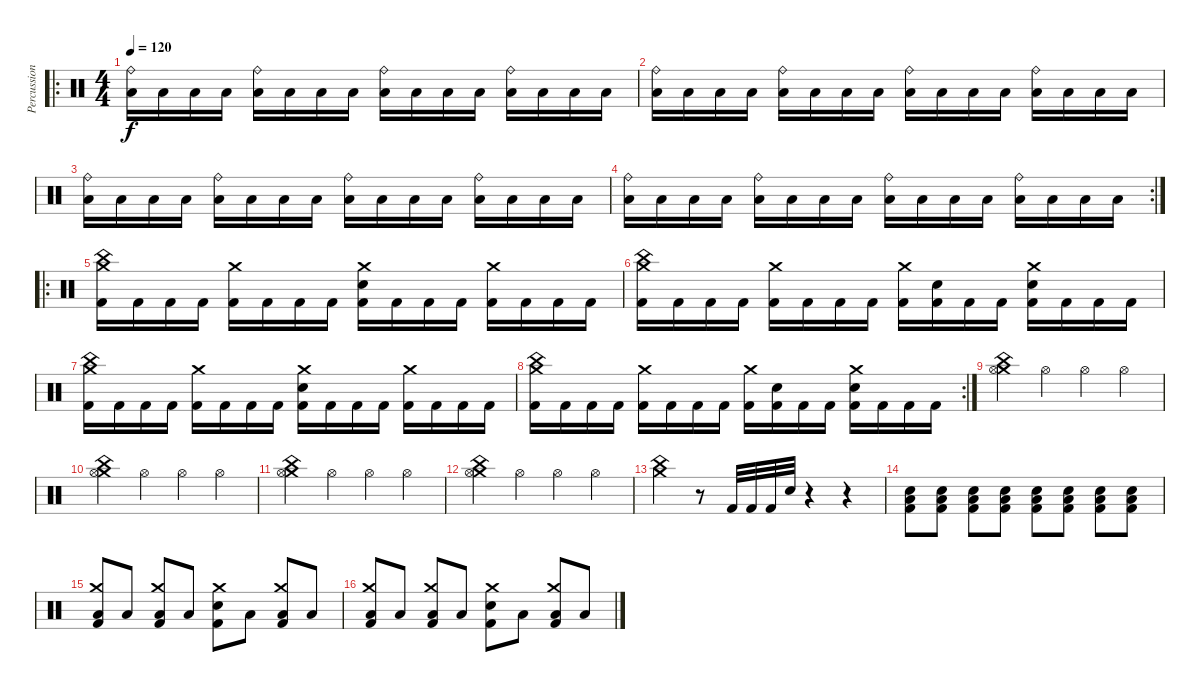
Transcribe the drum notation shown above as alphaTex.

\track ("Percussion" "Percussion") {instrument percussion}
\staff {score}
\articulation defaults
\ro
\ts (4 4)
\tempo 120
\clef neutral
\ks c
("Ride (bell)" "Low Tom (hit)").16{dy f} "Low Tom (hit)".16 "Low Tom (hit)".16 "Low Tom (hit)".16 ("Ride (bell)" "Low Tom (hit)").16 "Low Tom (hit)".16 "Low Tom (hit)".16 "Low Tom (hit)".16 ("Ride (bell)" "Low Tom (hit)").16 "Low Tom (hit)".16 "Low Tom (hit)".16 "Low Tom (hit)".16 ("Ride (bell)" "Low Tom (hit)").16 "Low Tom (hit)".16 "Low Tom (hit)".16 "Low Tom (hit)".16 |
("Ride (bell)" "Low Tom (hit)").16 "Low Tom (hit)".16 "Low Tom (hit)".16 "Low Tom (hit)".16 ("Ride (bell)" "Low Tom (hit)").16 "Low Tom (hit)".16 "Low Tom (hit)".16 "Low Tom (hit)".16 ("Ride (bell)" "Low Tom (hit)").16 "Low Tom (hit)".16 "Low Tom (hit)".16 "Low Tom (hit)".16 ("Ride (bell)" "Low Tom (hit)").16 "Low Tom (hit)".16 "Low Tom (hit)".16 "Low Tom (hit)".16 |
("Ride (bell)" "Low Tom (hit)").16 "Low Tom (hit)".16 "Low Tom (hit)".16 "Low Tom (hit)".16 ("Ride (bell)" "Low Tom (hit)").16 "Low Tom (hit)".16 "Low Tom (hit)".16 "Low Tom (hit)".16 ("Ride (bell)" "Low Tom (hit)").16 "Low Tom (hit)".16 "Low Tom (hit)".16 "Low Tom (hit)".16 ("Ride (bell)" "Low Tom (hit)").16 "Low Tom (hit)".16 "Low Tom (hit)".16 "Low Tom (hit)".16 |
\rc 2
("Ride (bell)" "Low Tom (hit)").16 "Low Tom (hit)".16 "Low Tom (hit)".16 "Low Tom (hit)".16 ("Ride (bell)" "Low Tom (hit)").16 "Low Tom (hit)".16 "Low Tom (hit)".16 "Low Tom (hit)".16 ("Ride (bell)" "Low Tom (hit)").16 "Low Tom (hit)".16 "Low Tom (hit)".16 "Low Tom (hit)".16 ("Ride (bell)" "Low Tom (hit)").16 "Low Tom (hit)".16 "Low Tom (hit)".16 "Low Tom (hit)".16 |
\ro
("Crash medium (hit)" "Kick (hit) 2" "China (hit)").16 "Kick (hit) 2".16 "Kick (hit) 2".16 "Kick (hit) 2".16 ("Crash medium (hit)" "Kick (hit) 2").16 "Kick (hit) 2".16 "Kick (hit) 2".16 "Kick (hit) 2".16 ("Crash medium (hit)" "Kick (hit) 2" "Snare (hit) 2").16 "Kick (hit) 2".16 "Kick (hit) 2".16 "Kick (hit) 2".16 ("Crash medium (hit)" "Kick (hit) 2").16 "Kick (hit) 2".16 "Kick (hit) 2".16 "Kick (hit) 2".16 |
("Crash medium (hit)" "Kick (hit) 2" "China (hit)").16 "Kick (hit) 2".16 "Kick (hit) 2".16 "Kick (hit) 2".16 ("Crash medium (hit)" "Kick (hit) 2").16 "Kick (hit) 2".16 "Kick (hit) 2".16 "Kick (hit) 2".16 ("Crash medium (hit)" "Kick (hit) 2").16 ("Kick (hit) 2" "Snare (hit) 2").16 "Kick (hit) 2".16 "Kick (hit) 2".16 ("Crash medium (hit)" "Kick (hit) 2" "Snare (hit) 2").16 "Kick (hit) 2".16 "Kick (hit) 2".16 "Kick (hit) 2".16 |
("Crash medium (hit)" "Kick (hit) 2" "China (hit)").16 "Kick (hit) 2".16 "Kick (hit) 2".16 "Kick (hit) 2".16 ("Crash medium (hit)" "Kick (hit) 2").16 "Kick (hit) 2".16 "Kick (hit) 2".16 "Kick (hit) 2".16 ("Crash medium (hit)" "Kick (hit) 2" "Snare (hit) 2").16 "Kick (hit) 2".16 "Kick (hit) 2".16 "Kick (hit) 2".16 ("Crash medium (hit)" "Kick (hit) 2").16 "Kick (hit) 2".16 "Kick (hit) 2".16 "Kick (hit) 2".16 |
\rc 2
("Crash medium (hit)" "Kick (hit) 2" "China (hit)").16 "Kick (hit) 2".16 "Kick (hit) 2".16 "Kick (hit) 2".16 ("Crash medium (hit)" "Kick (hit) 2").16 "Kick (hit) 2".16 "Kick (hit) 2".16 "Kick (hit) 2".16 ("Crash medium (hit)" "Kick (hit) 2").16 ("Kick (hit) 2" "Snare (hit) 2").16 "Kick (hit) 2".16 "Kick (hit) 2".16 ("Crash medium (hit)" "Kick (hit) 2" "Snare (hit) 2").16 "Kick (hit) 2".16 "Kick (hit) 2".16 "Kick (hit) 2".16 |
("Crash medium (hit)" "Hi-Hat (open)" "China (hit)").4 "Hi-Hat (open)".4 "Hi-Hat (open)".4 "Hi-Hat (open)".4 |
("Crash medium (hit)" "Hi-Hat (open)" "China (hit)").4 "Hi-Hat (open)".4 "Hi-Hat (open)".4 "Hi-Hat (open)".4 |
("Crash medium (hit)" "Hi-Hat (open)" "China (hit)").4 "Hi-Hat (open)".4 "Hi-Hat (open)".4 "Hi-Hat (open)".4 |
("Crash medium (hit)" "Hi-Hat (open)" "China (hit)").4 "Hi-Hat (open)".4 "Hi-Hat (open)".4 "Hi-Hat (open)".4 |
("Crash medium (hit)" "China (hit)").4 r.8 "Kick (hit) 2".32 "Kick (hit) 2".32 "Kick (hit) 2".32 "Snare (hit) 2".32 r.4 r.4 |
("Kick (hit) 2" "Low Tom (hit)" "Snare (hit) 2").8 ("Kick (hit) 2" "Low Tom (hit)" "Snare (hit) 2").8 ("Kick (hit) 2" "Low Tom (hit)" "Snare (hit) 2").8 ("Kick (hit) 2" "Low Tom (hit)" "Snare (hit) 2").8 ("Kick (hit) 2" "Low Tom (hit)" "Snare (hit) 2").8 ("Kick (hit) 2" "Low Tom (hit)" "Snare (hit) 2").8 ("Kick (hit) 2" "Low Tom (hit)" "Snare (hit) 2").8 ("Kick (hit) 2" "Low Tom (hit)" "Snare (hit) 2").8 |
("Crash medium (hit)" "Kick (hit) 2" "Low Tom (hit)").8 "Low Tom (hit)".8 ("Crash medium (hit)" "Kick (hit) 2" "Low Tom (hit)").8 "Low Tom (hit)".8 ("Crash medium (hit)" "Kick (hit) 2" "Snare (hit) 2").8 "Low Tom (hit)".8 ("Crash medium (hit)" "Kick (hit) 2" "Low Tom (hit)").8 "Low Tom (hit)".8 |
("Crash medium (hit)" "Kick (hit) 2" "Low Tom (hit)").8 "Low Tom (hit)".8 ("Crash medium (hit)" "Kick (hit) 2" "Low Tom (hit)").8 "Low Tom (hit)".8 ("Crash medium (hit)" "Kick (hit) 2" "Snare (hit) 2").8 "Low Tom (hit)".8 ("Crash medium (hit)" "Kick (hit) 2" "Low Tom (hit)").8 "Low Tom (hit)".8
